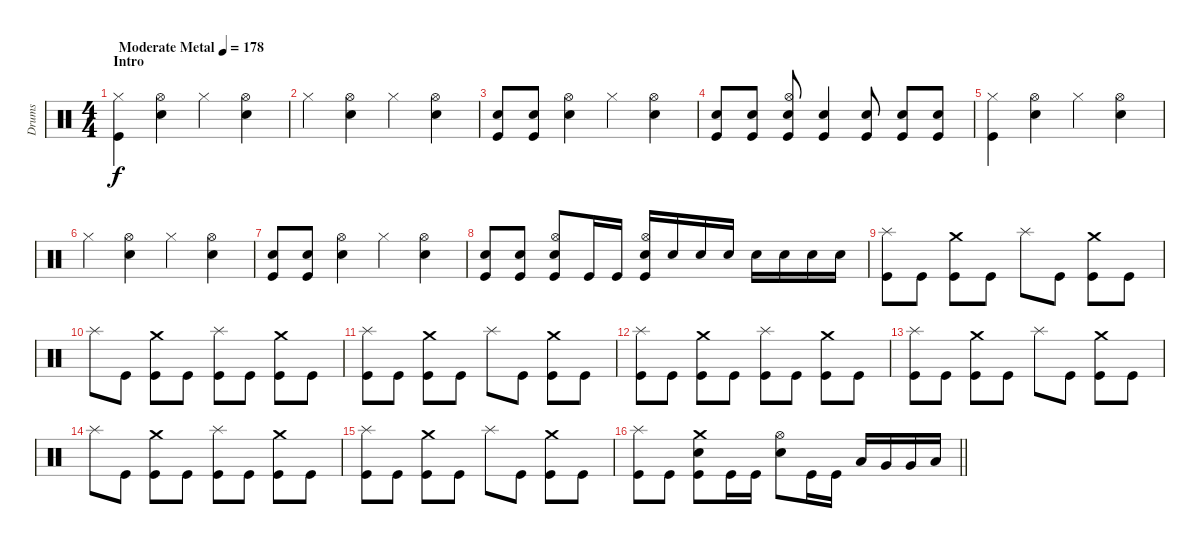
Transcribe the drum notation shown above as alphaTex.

\track ("Drums" "Drums") {instrument percussion}
\staff {score}
\articulation defaults
\ts (4 4)
\section ("" "Intro")
\tempo (178 "Moderate Metal")
\clef neutral
\ks c
("Hi-Hat (closed)" "Kick (hit)").4{dy f} ("Hi-Hat (open)" "Snare (hit) 2").4 "Hi-Hat (closed)".4 ("Hi-Hat (open)" "Snare (hit) 2").4 |
"Hi-Hat (closed)".4 ("Hi-Hat (open)" "Snare (hit) 2").4 "Hi-Hat (closed)".4 ("Hi-Hat (open)" "Snare (hit) 2").4 |
("Snare (hit) 2" "Kick (hit)").8 ("Snare (hit) 2" "Kick (hit)").8 ("Hi-Hat (open)" "Snare (hit) 2").4 "Hi-Hat (closed)".4 ("Hi-Hat (open)" "Snare (hit) 2").4 |
("Snare (hit) 2" "Kick (hit)").8 ("Snare (hit) 2" "Kick (hit)").8 ("Hi-Hat (open)" "Snare (hit) 2" "Kick (hit)").8 ("Snare (hit) 2" "Kick (hit)").4 ("Snare (hit) 2" "Kick (hit)").8 ("Snare (hit) 2" "Kick (hit)").8 ("Snare (hit) 2" "Kick (hit)").8 |
("Hi-Hat (closed)" "Kick (hit)").4 ("Hi-Hat (open)" "Snare (hit) 2").4 "Hi-Hat (closed)".4 ("Hi-Hat (open)" "Snare (hit) 2").4 |
"Hi-Hat (closed)".4 ("Hi-Hat (open)" "Snare (hit) 2").4 "Hi-Hat (closed)".4 ("Hi-Hat (open)" "Snare (hit) 2").4 |
("Snare (hit) 2" "Kick (hit)").8 ("Snare (hit) 2" "Kick (hit)").8 ("Hi-Hat (open)" "Snare (hit) 2").4 "Hi-Hat (closed)".4 ("Hi-Hat (open)" "Snare (hit) 2").4 |
("Snare (hit) 2" "Kick (hit)").8 ("Snare (hit) 2" "Kick (hit)").8 ("Hi-Hat (open)" "Snare (hit) 2" "Kick (hit)").8 "Kick (hit)".16 "Kick (hit)".16 ("Hi-Hat (open)" "Snare (hit) 2" "Kick (hit)").16 "Snare (hit) 2".16 "Snare (hit) 2".16 "Snare (hit) 2".16 "Snare (hit) 2".16 "Snare (hit) 2".16 "Snare (hit) 2".16 "Snare (hit) 2".16 |
("Splash (hit)" "Kick (hit)").8 "Kick (hit)".8 ("Crash medium (hit)" "Kick (hit)").8 "Kick (hit)".8 "Splash (hit)".8 "Kick (hit)".8 ("Crash medium (hit)" "Kick (hit)").8 "Kick (hit)".8 |
"Splash (hit)".8 "Kick (hit)".8 ("Crash medium (hit)" "Kick (hit)").8 "Kick (hit)".8 ("Splash (hit)" "Kick (hit)").8 "Kick (hit)".8 ("Crash medium (hit)" "Kick (hit)").8 "Kick (hit)".8 |
("Splash (hit)" "Kick (hit)").8 "Kick (hit)".8 ("Crash medium (hit)" "Kick (hit)").8 "Kick (hit)".8 "Splash (hit)".8 "Kick (hit)".8 ("Crash medium (hit)" "Kick (hit)").8 "Kick (hit)".8 |
("Splash (hit)" "Kick (hit)").8 "Kick (hit)".8 ("Crash medium (hit)" "Kick (hit)").8 "Kick (hit)".8 ("Splash (hit)" "Kick (hit)").8 "Kick (hit)".8 ("Crash medium (hit)" "Kick (hit)").8 "Kick (hit)".8 |
("Splash (hit)" "Kick (hit)").8 "Kick (hit)".8 ("Crash medium (hit)" "Kick (hit)").8 "Kick (hit)".8 "Splash (hit)".8 "Kick (hit)".8 ("Crash medium (hit)" "Kick (hit)").8 "Kick (hit)".8 |
"Splash (hit)".8 "Kick (hit)".8 ("Crash medium (hit)" "Kick (hit)").8 "Kick (hit)".8 ("Splash (hit)" "Kick (hit)").8 "Kick (hit)".8 ("Crash medium (hit)" "Kick (hit)").8 "Kick (hit)".8 |
("Splash (hit)" "Kick (hit)").8 "Kick (hit)".8 ("Crash medium (hit)" "Kick (hit)").8 "Kick (hit)".8 "Splash (hit)".8 "Kick (hit)".8 ("Crash medium (hit)" "Kick (hit)").8 "Kick (hit)".8 |
\barLineRight lightlight
("Splash (hit)" "Kick (hit)").8 "Kick (hit)".8 ("Crash medium (hit)" "Snare (hit) 2" "Kick (hit)").8 "Kick (hit)".16 "Kick (hit)".16 ("Hi-Hat (open)" "Snare (hit) 2").8 "Kick (hit)".16 "Kick (hit)".16 "Low Tom (hit)".16 "Very Low Tom (hit)".16 "Very Low Tom (hit)".16 "Low Floor Tom (hit)".16
